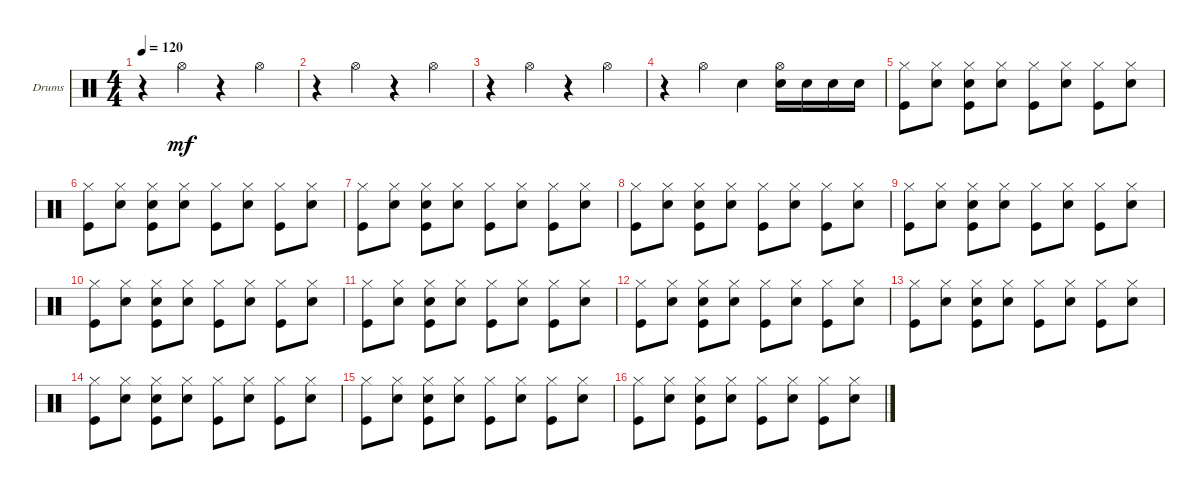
\defaultSystemsLayout 4
\bracketExtendMode groupsimilarinstruments
\firstSystemTrackNameOrientation horizontal
\otherSystemsTrackNameOrientation horizontal
\track ("Drumkit" "Drums") {instrument percussion}
\staff {score}
\articulation defaults
\ts (4 4)
\tempo 120
\clef neutral
\scale
0.474178
\ks c
r.4{dy mf} "Hi-Hat (open)".4 r.4 "Hi-Hat (open)".4 |
\scale
0.262911 r.4 "Hi-Hat (open)".4 r.4 "Hi-Hat (open)".4 |
\scale
0.262911 r.4 "Hi-Hat (open)".4 r.4 "Hi-Hat (open)".4 |
\scale
0.333333 r.4 "Hi-Hat (open)".4 "Snare (hit) 2".4 ("Hi-Hat (open)" "Snare (hit) 2").16 "Snare (hit) 2".16 "Snare (hit) 2".16 "Snare (hit) 2".16 |
\scale
0.333333 ("Kick (hit)" "Hi-Hat (closed)").8 ("Hi-Hat (closed)" "Snare (hit) 2").8 ("Hi-Hat (closed)" "Kick (hit)" "Snare (hit) 2").8 ("Hi-Hat (closed)" "Snare (hit) 2").8 ("Hi-Hat (closed)" "Kick (hit)").8 ("Hi-Hat (closed)" "Snare (hit) 2").8 ("Hi-Hat (closed)" "Kick (hit)").8 ("Hi-Hat (closed)" "Snare (hit) 2").8 |
\scale
0.333333 ("Hi-Hat (closed)" "Kick (hit)").8 ("Hi-Hat (closed)" "Snare (hit) 2").8 ("Hi-Hat (closed)" "Kick (hit)" "Snare (hit) 2").8 ("Hi-Hat (closed)" "Snare (hit) 2").8 ("Hi-Hat (closed)" "Kick (hit)").8 ("Hi-Hat (closed)" "Snare (hit) 2").8 ("Hi-Hat (closed)" "Kick (hit)").8 ("Hi-Hat (closed)" "Snare (hit) 2").8 |
\scale
0.333333 ("Kick (hit)" "Hi-Hat (closed)").8 ("Hi-Hat (closed)" "Snare (hit) 2").8 ("Hi-Hat (closed)" "Kick (hit)" "Snare (hit) 2").8 ("Hi-Hat (closed)" "Snare (hit) 2").8 ("Hi-Hat (closed)" "Kick (hit)").8 ("Hi-Hat (closed)" "Snare (hit) 2").8 ("Hi-Hat (closed)" "Kick (hit)").8 ("Hi-Hat (closed)" "Snare (hit) 2").8 |
\scale
0.333333 ("Hi-Hat (closed)" "Kick (hit)").8 ("Hi-Hat (closed)" "Snare (hit) 2").8 ("Hi-Hat (closed)" "Kick (hit)" "Snare (hit) 2").8 ("Hi-Hat (closed)" "Snare (hit) 2").8 ("Hi-Hat (closed)" "Kick (hit)").8 ("Hi-Hat (closed)" "Snare (hit) 2").8 ("Hi-Hat (closed)" "Kick (hit)").8 ("Hi-Hat (closed)" "Snare (hit) 2").8 |
\scale
0.333333 ("Kick (hit)" "Hi-Hat (closed)").8 ("Hi-Hat (closed)" "Snare (hit) 2").8 ("Hi-Hat (closed)" "Kick (hit)" "Snare (hit) 2").8 ("Hi-Hat (closed)" "Snare (hit) 2").8 ("Hi-Hat (closed)" "Kick (hit)").8 ("Hi-Hat (closed)" "Snare (hit) 2").8 ("Hi-Hat (closed)" "Kick (hit)").8 ("Hi-Hat (closed)" "Snare (hit) 2").8 |
\scale
0.333333 ("Hi-Hat (closed)" "Kick (hit)").8 ("Hi-Hat (closed)" "Snare (hit) 2").8 ("Hi-Hat (closed)" "Kick (hit)" "Snare (hit) 2").8 ("Hi-Hat (closed)" "Snare (hit) 2").8 ("Hi-Hat (closed)" "Kick (hit)").8 ("Hi-Hat (closed)" "Snare (hit) 2").8 ("Hi-Hat (closed)" "Kick (hit)").8 ("Hi-Hat (closed)" "Snare (hit) 2").8 |
\scale
0.333333 ("Kick (hit)" "Hi-Hat (closed)").8 ("Hi-Hat (closed)" "Snare (hit) 2").8 ("Hi-Hat (closed)" "Kick (hit)" "Snare (hit) 2").8 ("Hi-Hat (closed)" "Snare (hit) 2").8 ("Hi-Hat (closed)" "Kick (hit)").8 ("Hi-Hat (closed)" "Snare (hit) 2").8 ("Hi-Hat (closed)" "Kick (hit)").8 ("Hi-Hat (closed)" "Snare (hit) 2").8 |
\scale
0.333333 ("Hi-Hat (closed)" "Kick (hit)").8 ("Hi-Hat (closed)" "Snare (hit) 2").8 ("Hi-Hat (closed)" "Kick (hit)" "Snare (hit) 2").8 ("Hi-Hat (closed)" "Snare (hit) 2").8 ("Hi-Hat (closed)" "Kick (hit)").8 ("Hi-Hat (closed)" "Snare (hit) 2").8 ("Hi-Hat (closed)" "Kick (hit)").8 ("Hi-Hat (closed)" "Snare (hit) 2").8 |
\scale
0.333333 ("Kick (hit)" "Hi-Hat (closed)").8 ("Hi-Hat (closed)" "Snare (hit) 2").8 ("Hi-Hat (closed)" "Kick (hit)" "Snare (hit) 2").8 ("Hi-Hat (closed)" "Snare (hit) 2").8 ("Hi-Hat (closed)" "Kick (hit)").8 ("Hi-Hat (closed)" "Snare (hit) 2").8 ("Hi-Hat (closed)" "Kick (hit)").8 ("Hi-Hat (closed)" "Snare (hit) 2").8 |
\scale
0.333333 ("Hi-Hat (closed)" "Kick (hit)").8 ("Hi-Hat (closed)" "Snare (hit) 2").8 ("Hi-Hat (closed)" "Kick (hit)" "Snare (hit) 2").8 ("Hi-Hat (closed)" "Snare (hit) 2").8 ("Hi-Hat (closed)" "Kick (hit)").8 ("Hi-Hat (closed)" "Snare (hit) 2").8 ("Hi-Hat (closed)" "Kick (hit)").8 ("Hi-Hat (closed)" "Snare (hit) 2").8 |
\scale
0.333333 ("Kick (hit)" "Hi-Hat (closed)").8 ("Hi-Hat (closed)" "Snare (hit) 2").8 ("Hi-Hat (closed)" "Kick (hit)" "Snare (hit) 2").8 ("Hi-Hat (closed)" "Snare (hit) 2").8 ("Hi-Hat (closed)" "Kick (hit)").8 ("Hi-Hat (closed)" "Snare (hit) 2").8 ("Hi-Hat (closed)" "Kick (hit)").8 ("Hi-Hat (closed)" "Snare (hit) 2").8 |
\scale
0.333333 ("Hi-Hat (closed)" "Kick (hit)").8 ("Hi-Hat (closed)" "Snare (hit) 2").8 ("Hi-Hat (closed)" "Kick (hit)" "Snare (hit) 2").8 ("Hi-Hat (closed)" "Snare (hit) 2").8 ("Hi-Hat (closed)" "Kick (hit)").8 ("Hi-Hat (closed)" "Snare (hit) 2").8 ("Hi-Hat (closed)" "Kick (hit)").8 ("Hi-Hat (closed)" "Snare (hit) 2").8
